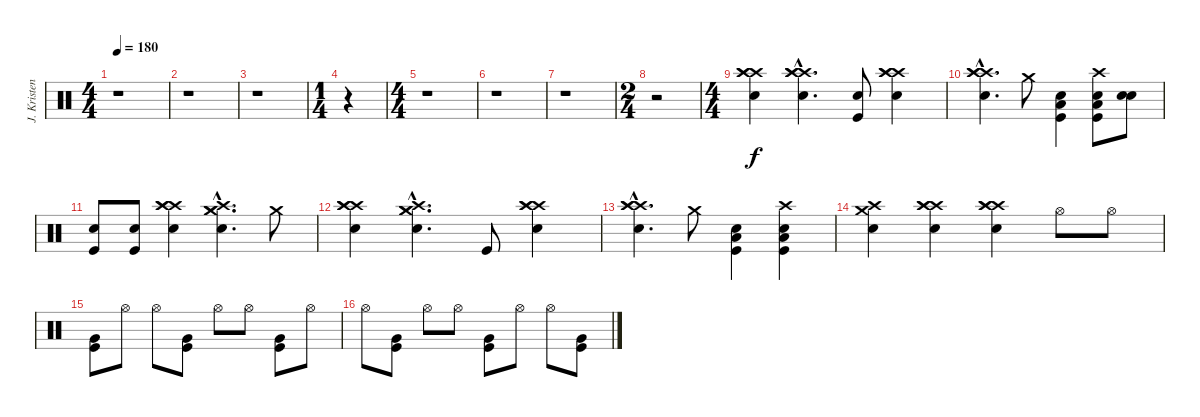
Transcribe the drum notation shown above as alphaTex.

\track ("J. Kristensson" "J. Kristen") {instrument percussion}
\staff {score}
\articulation defaults
\ts (4 4)
\tempo 180
\clef neutral
\ks c
r.1{dy f} |
r.1 |
r.1 |
\ts (1 4)
r.4 |
\ts (4 4)
r.1 |
r.1 |
r.1 |
\ts (2 4)
r.2 |
\ts (4 4)
("Crash high (hit)" "Crash high (hit)" "Crash high (hit)" "Snare (hit) 2").4 ("Crash high (hit)"{hac} "Crash high (hit)"{hac} "Crash high (hit)"{hac} "Snare (hit) 2"{hac}).4{d} ("Kick (hit)" "Snare (hit) 2").8 ("Crash high (hit)" "Crash high (hit)" "Crash high (hit)" "Snare (hit) 2").4 |
("Crash high (hit)"{hac} "Crash high (hit)"{hac} "Crash high (hit)"{hac} "Snare (hit) 2"{hac}).4{d} "Crash medium (hit)".8 ("Low Tom (hit)" "Kick (hit)" "Snare (hit) 2").4 ("Low Tom (hit)" "Kick (hit)" "Snare (hit) 2" "Crash high (hit)").8 ("Electric Snare (hit)" "Snare (hit) 2").8 |
("Snare (hit) 2" "Kick (hit)").8 ("Snare (hit) 2" "Kick (hit)").8 ("Crash high (hit)" "Crash high (hit)" "Crash high (hit)" "Snare (hit) 2").4 ("Crash medium (hit)"{hac} "Crash medium (hit)"{hac} "Crash high (hit)"{hac} "Snare (hit) 2"{hac}).4{d} "Crash medium (hit)".8 |
("Crash high (hit)" "Crash high (hit)" "Crash high (hit)" "Snare (hit) 2").4 ("Crash medium (hit)"{hac} "Crash medium (hit)"{hac} "Crash high (hit)"{hac} "Snare (hit) 2"{hac}).4{d} "Kick (hit)".8 ("Crash high (hit)" "Crash high (hit)" "Crash high (hit)" "Snare (hit) 2").4 |
("Crash high (hit)"{hac} "Crash high (hit)"{hac} "Crash high (hit)"{hac} "Snare (hit) 2"{hac}).4{d} "Crash medium (hit)".8 ("Low Tom (hit)" "Kick (hit)" "Snare (hit) 2").4 ("Low Tom (hit)" "Kick (hit)" "Snare (hit) 2" "Crash high (hit)").4 |
("Crash medium (hit)" "Crash high (hit)" "Snare (hit) 2").4 ("Crash high (hit)" "Crash high (hit)" "Crash high (hit)" "Snare (hit) 2").4 ("Crash high (hit)" "Crash high (hit)" "Crash high (hit)" "Snare (hit) 2").4 "Hi-Hat (open)".8 "Hi-Hat (open)".8 |
("Kick (hit)" "Very Low Tom (hit)").8 "Hi-Hat (open)".8 "Hi-Hat (open)".8 ("Kick (hit)" "Very Low Tom (hit)").8 "Hi-Hat (open)".8 "Hi-Hat (open)".8 ("Kick (hit)" "Very Low Tom (hit)").8 "Hi-Hat (open)".8 |
"Hi-Hat (open)".8 ("Kick (hit)" "Very Low Tom (hit)").8 "Hi-Hat (open)".8 "Hi-Hat (open)".8 ("Kick (hit)" "Very Low Tom (hit)").8 "Hi-Hat (open)".8 "Hi-Hat (open)".8 ("Kick (hit)" "Very Low Tom (hit)").8
